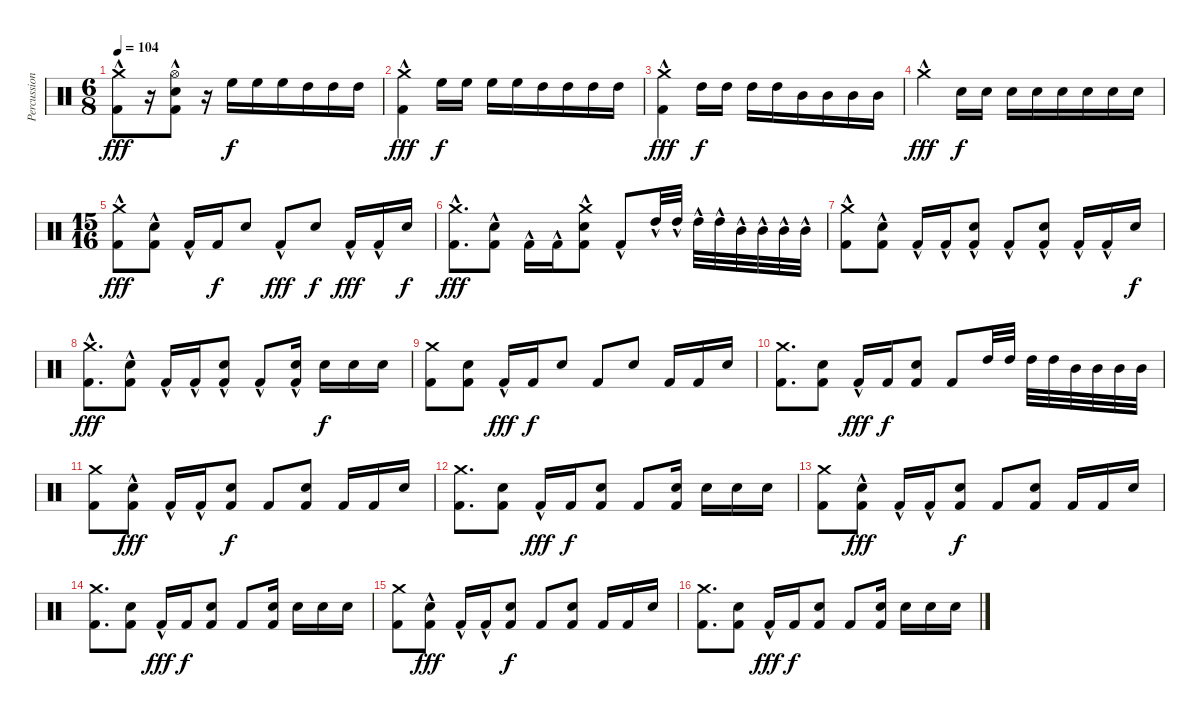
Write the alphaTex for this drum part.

\track ("Percussion" "Percussion") {instrument percussion}
\staff {score}
\articulation defaults
\ts (6 8)
\tempo 104
\clef neutral
\ks c
("Crash medium (hit)"{hac} "Kick (hit) 2"{hac}).8{dy fff} r.16 ("Hi-Hat (open)"{hac} "Electric Snare (hit)"{hac} "Kick (hit) 2"{hac}).8 r.16 "High Floor Tom (hit)".16{dy f} "High Floor Tom (hit)".16 "High Floor Tom (hit)".16 "High Tom (hit)".16 "High Tom (hit)".16 "High Tom (hit)".16 |
("Crash medium (hit)"{hac} "Kick (hit) 2"{hac}).4{dy fff} "High Floor Tom (hit)".16{dy f} "High Floor Tom (hit)".16 "High Floor Tom (hit)".16 "High Floor Tom (hit)".16 "High Tom (hit)".16 "High Tom (hit)".16 "High Tom (hit)".16 "High Tom (hit)".16 |
("Crash medium (hit)"{hac} "Kick (hit) 2"{hac}).4{dy fff} "High Tom (hit)".16{dy f} "High Tom (hit)".16 "High Tom (hit)".16 "High Tom (hit)".16 "Mid Tom (hit)".16 "Mid Tom (hit)".16 "Mid Tom (hit)".16 "Mid Tom (hit)".16 |
"Crash medium (hit)"{hac}.4{dy fff} "Electric Snare (hit)".16{dy f} "Electric Snare (hit)".16 "Electric Snare (hit)".16 "Electric Snare (hit)".16 "Electric Snare (hit)".16 "Electric Snare (hit)".16 "Electric Snare (hit)".16 "Electric Snare (hit)".16 |
\ts (15 16)
("Crash medium (hit)" "Kick (hit) 2"{hac}).8{dy fff} ("Electric Snare (hit)" "Kick (hit) 2"{hac}).8 "Kick (hit) 2"{hac}.16 "Kick (hit) 2".16{dy f} "Electric Snare (hit)".8 "Kick (hit) 2"{hac}.8{dy fff} "Electric Snare (hit)".8{dy f} "Kick (hit) 2"{hac}.16{dy fff} "Kick (hit) 2"{hac}.16 "Electric Snare (hit)".16{dy f} |
("Crash medium (hit)" "Kick (hit) 2"{hac}).8{d dy fff} ("Electric Snare (hit)" "Kick (hit) 2"{hac}).8 "Kick (hit) 2"{hac}.16 "Kick (hit) 2"{hac}.16 ("Crash medium (hit)"{hac} "Electric Snare (hit)" "Kick (hit) 2"{hac}).8 "Kick (hit) 2"{hac}.8 "High Tom (hit)"{hac}.32 "High Tom (hit)"{hac}.32 "High Tom (hit)"{hac}.32 "High Tom (hit)"{hac}.32 "Mid Tom (hit)"{hac}.32 "Mid Tom (hit)"{hac}.32 "Mid Tom (hit)"{hac}.32 "Mid Tom (hit)"{hac}.32 |
("Crash medium (hit)" "Kick (hit) 2"{hac}).8 ("Electric Snare (hit)" "Kick (hit) 2"{hac}).8 "Kick (hit) 2"{hac}.16 "Kick (hit) 2"{hac}.16 ("Electric Snare (hit)" "Kick (hit) 2"{hac}).8 "Kick (hit) 2"{hac}.8 ("Electric Snare (hit)" "Kick (hit) 2"{hac}).8 "Kick (hit) 2"{hac}.16 "Kick (hit) 2"{hac}.16 "Electric Snare (hit)".16{dy f} |
("Crash medium (hit)" "Kick (hit) 2"{hac}).8{d dy fff} ("Electric Snare (hit)" "Kick (hit) 2"{hac}).8 "Kick (hit) 2"{hac}.16 "Kick (hit) 2"{hac}.16 ("Electric Snare (hit)" "Kick (hit) 2"{hac}).8 "Kick (hit) 2"{hac}.8 ("Electric Snare (hit)" "Kick (hit) 2"{hac}).16 "Electric Snare (hit)".16{dy f} "Electric Snare (hit)".16 "Electric Snare (hit)".16 |
("Crash medium (hit)" "Kick (hit) 2").8 ("Electric Snare (hit)" "Kick (hit) 2").8 "Kick (hit) 2"{hac}.16{dy fff} "Kick (hit) 2".16{dy f} "Electric Snare (hit)".8 "Kick (hit) 2".8 "Electric Snare (hit)".8 "Kick (hit) 2".16 "Kick (hit) 2".16 "Electric Snare (hit)".16 |
("Crash medium (hit)" "Kick (hit) 2").8{d} ("Electric Snare (hit)" "Kick (hit) 2").8 "Kick (hit) 2"{hac}.16{dy fff} "Kick (hit) 2".16{dy f} ("Electric Snare (hit)" "Kick (hit) 2").8 "Kick (hit) 2".8 "High Tom (hit)".32 "High Tom (hit)".32 "High Tom (hit)".32 "High Tom (hit)".32 "Mid Tom (hit)".32 "Mid Tom (hit)".32 "Mid Tom (hit)".32 "Mid Tom (hit)".32 |
("Crash medium (hit)" "Kick (hit) 2").8 ("Electric Snare (hit)" "Kick (hit) 2"{hac}).8{dy fff} "Kick (hit) 2"{hac}.16 "Kick (hit) 2"{hac}.16 ("Electric Snare (hit)" "Kick (hit) 2").8{dy f} "Kick (hit) 2".8 ("Electric Snare (hit)" "Kick (hit) 2").8 "Kick (hit) 2".16 "Kick (hit) 2".16 "Electric Snare (hit)".16 |
("Crash medium (hit)" "Kick (hit) 2").8{d} ("Electric Snare (hit)" "Kick (hit) 2").8 "Kick (hit) 2"{hac}.16{dy fff} "Kick (hit) 2".16{dy f} ("Electric Snare (hit)" "Kick (hit) 2").8 "Kick (hit) 2".8 ("Electric Snare (hit)" "Kick (hit) 2").16 "Electric Snare (hit)".16 "Electric Snare (hit)".16 "Electric Snare (hit)".16 |
("Crash medium (hit)" "Kick (hit) 2").8 ("Electric Snare (hit)" "Kick (hit) 2"{hac}).8{dy fff} "Kick (hit) 2"{hac}.16 "Kick (hit) 2"{hac}.16 ("Electric Snare (hit)" "Kick (hit) 2").8{dy f} "Kick (hit) 2".8 ("Electric Snare (hit)" "Kick (hit) 2").8 "Kick (hit) 2".16 "Kick (hit) 2".16 "Electric Snare (hit)".16 |
("Crash medium (hit)" "Kick (hit) 2").8{d} ("Electric Snare (hit)" "Kick (hit) 2").8 "Kick (hit) 2"{hac}.16{dy fff} "Kick (hit) 2".16{dy f} ("Electric Snare (hit)" "Kick (hit) 2").8 "Kick (hit) 2".8 ("Electric Snare (hit)" "Kick (hit) 2").16 "Electric Snare (hit)".16 "Electric Snare (hit)".16 "Electric Snare (hit)".16 |
("Crash medium (hit)" "Kick (hit) 2").8 ("Electric Snare (hit)" "Kick (hit) 2"{hac}).8{dy fff} "Kick (hit) 2"{hac}.16 "Kick (hit) 2"{hac}.16 ("Electric Snare (hit)" "Kick (hit) 2").8{dy f} "Kick (hit) 2".8 ("Electric Snare (hit)" "Kick (hit) 2").8 "Kick (hit) 2".16 "Kick (hit) 2".16 "Electric Snare (hit)".16 |
("Crash medium (hit)" "Kick (hit) 2").8{d} ("Electric Snare (hit)" "Kick (hit) 2").8 "Kick (hit) 2"{hac}.16{dy fff} "Kick (hit) 2".16{dy f} ("Electric Snare (hit)" "Kick (hit) 2").8 "Kick (hit) 2".8 ("Electric Snare (hit)" "Kick (hit) 2").16 "Electric Snare (hit)".16 "Electric Snare (hit)".16 "Electric Snare (hit)".16
